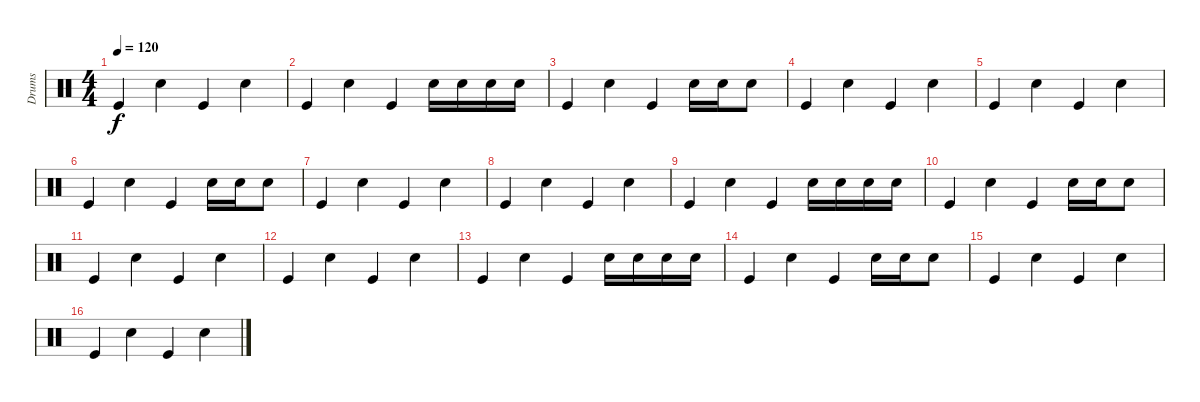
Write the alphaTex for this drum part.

\track ("Drums" "Drums") {instrument percussion}
\staff {score}
\articulation defaults
\ts (4 4)
\tempo 120
\clef neutral
\ks c "Kick (hit)".4{dy f} "Snare (hit) 2".4 "Kick (hit)".4 "Snare (hit) 2".4
|
"Kick (hit)".4 "Snare (hit) 2".4 "Kick (hit)".4 "Snare (hit) 2".16 "Snare (hit) 2".16 "Snare (hit) 2".16 "Snare (hit) 2".16 |
"Kick (hit)".4 "Snare (hit) 2".4 "Kick (hit)".4 "Snare (hit) 2".16 "Snare (hit) 2".16 "Snare (hit) 2".8 |
"Kick (hit)".4 "Snare (hit) 2".4 "Kick (hit)".4 "Snare (hit) 2".4 |
"Kick (hit)".4 "Snare (hit) 2".4 "Kick (hit)".4 "Snare (hit) 2".4 |
"Kick (hit)".4 "Snare (hit) 2".4 "Kick (hit)".4 "Snare (hit) 2".16 "Snare (hit) 2".16 "Snare (hit) 2".8 |
"Kick (hit)".4 "Snare (hit) 2".4 "Kick (hit)".4 "Snare (hit) 2".4 |
"Kick (hit)".4 "Snare (hit) 2".4 "Kick (hit)".4 "Snare (hit) 2".4 |
"Kick (hit)".4 "Snare (hit) 2".4 "Kick (hit)".4 "Snare (hit) 2".16 "Snare (hit) 2".16 "Snare (hit) 2".16 "Snare (hit) 2".16 |
"Kick (hit)".4 "Snare (hit) 2".4 "Kick (hit)".4 "Snare (hit) 2".16 "Snare (hit) 2".16 "Snare (hit) 2".8 |
"Kick (hit)".4 "Snare (hit) 2".4 "Kick (hit)".4 "Snare (hit) 2".4 |
"Kick (hit)".4 "Snare (hit) 2".4 "Kick (hit)".4 "Snare (hit) 2".4 |
"Kick (hit)".4 "Snare (hit) 2".4 "Kick (hit)".4 "Snare (hit) 2".16 "Snare (hit) 2".16 "Snare (hit) 2".16 "Snare (hit) 2".16 |
"Kick (hit)".4 "Snare (hit) 2".4 "Kick (hit)".4 "Snare (hit) 2".16 "Snare (hit) 2".16 "Snare (hit) 2".8 |
"Kick (hit)".4 "Snare (hit) 2".4 "Kick (hit)".4 "Snare (hit) 2".4 |
"Kick (hit)".4 "Snare (hit) 2".4 "Kick (hit)".4 "Snare (hit) 2".4
